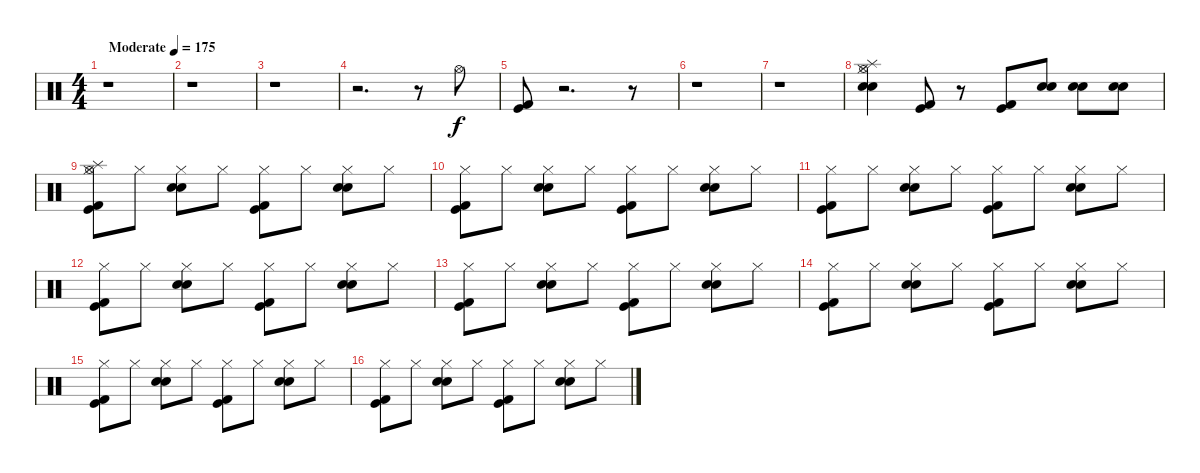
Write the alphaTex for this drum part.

\track "" {instrument percussion}
\staff {score}
\articulation defaults
\ts (4 4)
\tempo (175 "Moderate")
\clef neutral
\ks c
r.1{dy f} |
r.1 |
r.1 |
r.2{d} r.8 "Hi-Hat (open)".8 |
("Kick (hit)" "Kick (hit) 2").8 r.2{d} r.8 |
r.1 |
r.1 |
("Hi-Hat (closed)" "Hi-Hat (open)" "Electric Snare (hit)" "Snare (hit) 2" "Splash (hit)").4 ("Kick (hit) 2" "Kick (hit)").8 r.8 ("Kick (hit) 2" "Kick (hit)").8 ("Electric Snare (hit)" "Snare (hit) 2").8 ("Electric Snare (hit)" "Snare (hit) 2").8 ("Electric Snare (hit)" "Snare (hit) 2").8 |
("Kick (hit) 2" "Kick (hit)" "Hi-Hat (closed)" "Splash (hit)" "Hi-Hat (open)").8 "Hi-Hat (closed)".8 ("Electric Snare (hit)" "Snare (hit) 2" "Hi-Hat (closed)").8 "Hi-Hat (closed)".8 ("Hi-Hat (closed)" "Kick (hit)" "Kick (hit) 2").8 "Hi-Hat (closed)".8 ("Electric Snare (hit)" "Snare (hit) 2" "Hi-Hat (closed)").8 "Hi-Hat (closed)".8 |
("Hi-Hat (closed)" "Kick (hit)" "Kick (hit) 2").8 "Hi-Hat (closed)".8 ("Electric Snare (hit)" "Snare (hit) 2" "Hi-Hat (closed)").8 "Hi-Hat (closed)".8 ("Hi-Hat (closed)" "Kick (hit)" "Kick (hit) 2").8 "Hi-Hat (closed)".8 ("Electric Snare (hit)" "Snare (hit) 2" "Hi-Hat (closed)").8 "Hi-Hat (closed)".8 |
("Hi-Hat (closed)" "Kick (hit)" "Kick (hit) 2").8 "Hi-Hat (closed)".8 ("Electric Snare (hit)" "Snare (hit) 2" "Hi-Hat (closed)").8 "Hi-Hat (closed)".8 ("Hi-Hat (closed)" "Kick (hit)" "Kick (hit) 2").8 "Hi-Hat (closed)".8 ("Electric Snare (hit)" "Snare (hit) 2" "Hi-Hat (closed)").8 "Hi-Hat (closed)".8 |
("Hi-Hat (closed)" "Kick (hit)" "Kick (hit) 2").8 "Hi-Hat (closed)".8 ("Electric Snare (hit)" "Snare (hit) 2" "Hi-Hat (closed)").8 "Hi-Hat (closed)".8 ("Hi-Hat (closed)" "Kick (hit)" "Kick (hit) 2").8 "Hi-Hat (closed)".8 ("Electric Snare (hit)" "Snare (hit) 2" "Hi-Hat (closed)").8 "Hi-Hat (closed)".8 |
("Kick (hit) 2" "Kick (hit)" "Hi-Hat (closed)").8 "Hi-Hat (closed)".8 ("Electric Snare (hit)" "Snare (hit) 2" "Hi-Hat (closed)").8 "Hi-Hat (closed)".8 ("Hi-Hat (closed)" "Kick (hit)" "Kick (hit) 2").8 "Hi-Hat (closed)".8 ("Electric Snare (hit)" "Snare (hit) 2" "Hi-Hat (closed)").8 "Hi-Hat (closed)".8 |
("Hi-Hat (closed)" "Kick (hit)" "Kick (hit) 2").8 "Hi-Hat (closed)".8 ("Electric Snare (hit)" "Snare (hit) 2" "Hi-Hat (closed)").8 "Hi-Hat (closed)".8 ("Hi-Hat (closed)" "Kick (hit)" "Kick (hit) 2").8 "Hi-Hat (closed)".8 ("Electric Snare (hit)" "Snare (hit) 2" "Hi-Hat (closed)").8 "Hi-Hat (closed)".8 |
("Kick (hit) 2" "Kick (hit)" "Hi-Hat (closed)").8 "Hi-Hat (closed)".8 ("Electric Snare (hit)" "Snare (hit) 2" "Hi-Hat (closed)").8 "Hi-Hat (closed)".8 ("Hi-Hat (closed)" "Kick (hit)" "Kick (hit) 2").8 "Hi-Hat (closed)".8 ("Electric Snare (hit)" "Snare (hit) 2" "Hi-Hat (closed)").8 "Hi-Hat (closed)".8 |
("Hi-Hat (closed)" "Kick (hit)" "Kick (hit) 2").8 "Hi-Hat (closed)".8 ("Electric Snare (hit)" "Snare (hit) 2" "Hi-Hat (closed)").8 "Hi-Hat (closed)".8 ("Hi-Hat (closed)" "Kick (hit)" "Kick (hit) 2").8 "Hi-Hat (closed)".8 ("Electric Snare (hit)" "Snare (hit) 2" "Hi-Hat (closed)").8 "Hi-Hat (closed)".8
